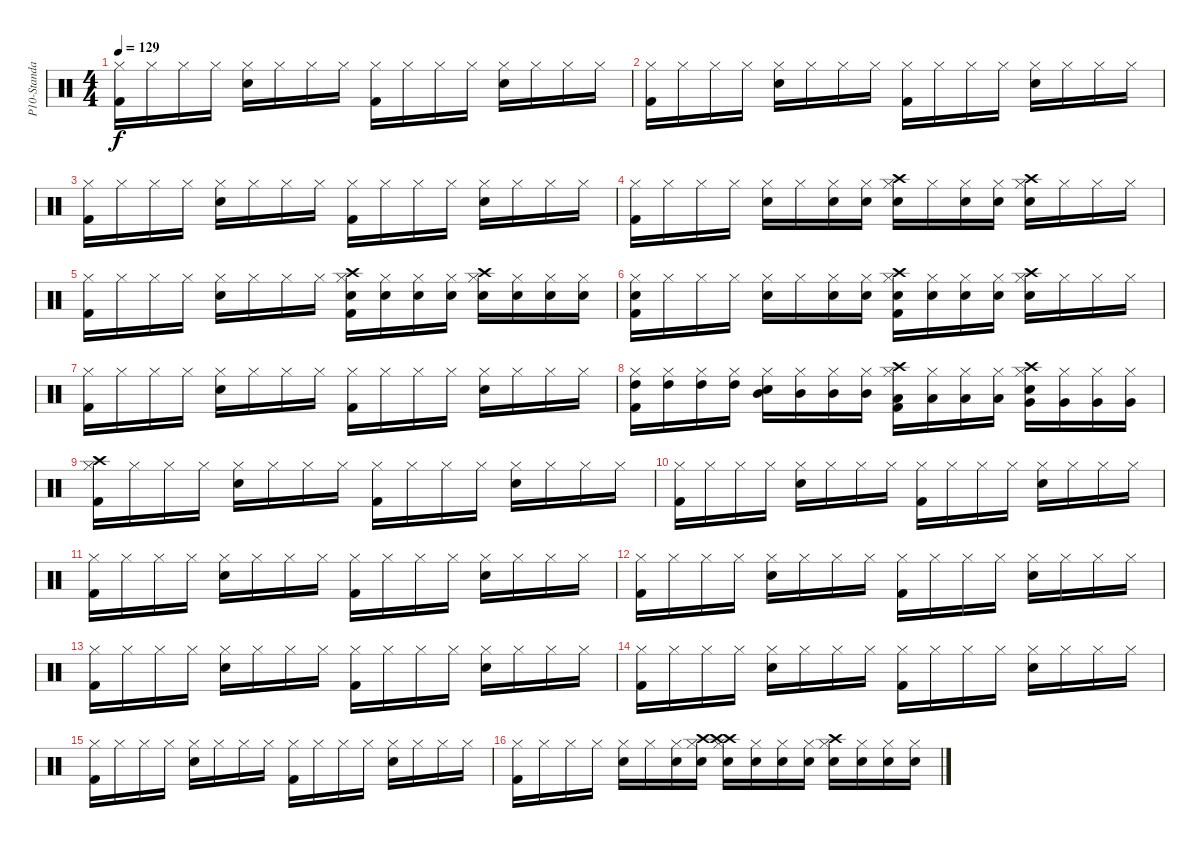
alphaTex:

\track ("P10-Standard Kit 2" "P10-Standa") {instrument percussion}
\staff {score}
\articulation defaults
\ts (4 4)
\tempo 129
\clef neutral
\ks c
("Kick (hit) 2" "Hi-Hat (closed)").16{dy f} "Hi-Hat (closed)".16 "Hi-Hat (closed)".16 "Hi-Hat (closed)".16 ("Snare (hit) 2" "Hi-Hat (closed)").16 "Hi-Hat (closed)".16 "Hi-Hat (closed)".16 "Hi-Hat (closed)".16 ("Kick (hit) 2" "Hi-Hat (closed)").16 "Hi-Hat (closed)".16 "Hi-Hat (closed)".16 "Hi-Hat (closed)".16 ("Hi-Hat (closed)" "Snare (hit) 2").16 "Hi-Hat (closed)".16 "Hi-Hat (closed)".16 "Hi-Hat (closed)".16 |
("Kick (hit) 2" "Hi-Hat (closed)").16 "Hi-Hat (closed)".16 "Hi-Hat (closed)".16 "Hi-Hat (closed)".16 ("Snare (hit) 2" "Hi-Hat (closed)").16 "Hi-Hat (closed)".16 "Hi-Hat (closed)".16 "Hi-Hat (closed)".16 ("Kick (hit) 2" "Hi-Hat (closed)").16 "Hi-Hat (closed)".16 "Hi-Hat (closed)".16 "Hi-Hat (closed)".16 ("Snare (hit) 2" "Hi-Hat (closed)").16 "Hi-Hat (closed)".16 "Hi-Hat (closed)".16 "Hi-Hat (closed)".16 |
("Hi-Hat (closed)" "Kick (hit) 2").16 "Hi-Hat (closed)".16 "Hi-Hat (closed)".16 "Hi-Hat (closed)".16 ("Snare (hit) 2" "Hi-Hat (closed)").16 "Hi-Hat (closed)".16 "Hi-Hat (closed)".16 "Hi-Hat (closed)".16 ("Kick (hit) 2" "Hi-Hat (closed)").16 "Hi-Hat (closed)".16 "Hi-Hat (closed)".16 "Hi-Hat (closed)".16 ("Snare (hit) 2" "Hi-Hat (closed)").16 "Hi-Hat (closed)".16 "Hi-Hat (closed)".16 "Hi-Hat (closed)".16 |
("Hi-Hat (closed)" "Kick (hit) 2").16 "Hi-Hat (closed)".16 "Hi-Hat (closed)".16 "Hi-Hat (closed)".16 ("Snare (hit) 2" "Hi-Hat (closed)").16 "Hi-Hat (closed)".16 ("Snare (hit) 2" "Hi-Hat (closed)").16 ("Hi-Hat (closed)" "Snare (hit) 2").16 ("Hi-Hat (closed)" "Snare (hit) 2" "Crash high (hit)").16 "Hi-Hat (closed)".16 ("Hi-Hat (closed)" "Snare (hit) 2").16 ("Hi-Hat (closed)" "Snare (hit) 2").16 ("Snare (hit) 2" "Hi-Hat (closed)" "Crash high (hit)").16 "Hi-Hat (closed)".16 "Hi-Hat (closed)".16 "Hi-Hat (closed)".16 |
("Hi-Hat (closed)" "Kick (hit) 2").16 "Hi-Hat (closed)".16 "Hi-Hat (closed)".16 "Hi-Hat (closed)".16 ("Hi-Hat (closed)" "Snare (hit) 2").16 "Hi-Hat (closed)".16 "Hi-Hat (closed)".16 "Hi-Hat (closed)".16 ("Kick (hit) 2" "Snare (hit) 2" "Crash high (hit)" "Hi-Hat (closed)").16 ("Hi-Hat (closed)" "Snare (hit) 2").16 ("Snare (hit) 2" "Hi-Hat (closed)").16 ("Hi-Hat (closed)" "Snare (hit) 2").16 ("Hi-Hat (closed)" "Snare (hit) 2" "Crash high (hit)").16 ("Hi-Hat (closed)" "Snare (hit) 2").16 ("Hi-Hat (closed)" "Snare (hit) 2").16 ("Snare (hit) 2" "Hi-Hat (closed)").16 |
("Snare (hit) 2" "Hi-Hat (closed)" "Kick (hit) 2").16 "Hi-Hat (closed)".16 "Hi-Hat (closed)".16 "Hi-Hat (closed)".16 ("Snare (hit) 2" "Hi-Hat (closed)").16 "Hi-Hat (closed)".16 ("Hi-Hat (closed)" "Snare (hit) 2").16 ("Hi-Hat (closed)" "Snare (hit) 2").16 ("Crash high (hit)" "Kick (hit) 2" "Hi-Hat (closed)" "Snare (hit) 2").16 ("Snare (hit) 2" "Hi-Hat (closed)").16 ("Hi-Hat (closed)" "Snare (hit) 2").16 ("Hi-Hat (closed)" "Snare (hit) 2").16 ("Snare (hit) 2" "Crash high (hit)" "Hi-Hat (closed)").16 "Hi-Hat (closed)".16 "Hi-Hat (closed)".16 "Hi-Hat (closed)".16 |
("Kick (hit) 2" "Hi-Hat (closed)").16 "Hi-Hat (closed)".16 "Hi-Hat (closed)".16 "Hi-Hat (closed)".16 ("Hi-Hat (closed)" "Snare (hit) 2").16 "Hi-Hat (closed)".16 "Hi-Hat (closed)".16 "Hi-Hat (closed)".16 ("Kick (hit) 2" "Hi-Hat (closed)").16 "Hi-Hat (closed)".16 "Hi-Hat (closed)".16 "Hi-Hat (closed)".16 ("Hi-Hat (closed)" "Snare (hit) 2").16 "Hi-Hat (closed)".16 "Hi-Hat (closed)".16 "Hi-Hat (closed)".16 |
("High Tom (hit)" "Hi-Hat (closed)" "Kick (hit) 2").16 ("High Tom (hit)" "Hi-Hat (closed)").16 ("High Tom (hit)" "Hi-Hat (closed)").16 ("Hi-Hat (closed)" "High Tom (hit)").16 ("Mid Tom (hit)" "Hi-Hat (closed)" "Snare (hit) 2").16 ("Mid Tom (hit)" "Hi-Hat (closed)").16 ("Mid Tom (hit)" "Hi-Hat (closed)").16 ("Hi-Hat (closed)" "Mid Tom (hit)").16 ("Hi-Hat (closed)" "Low Tom (hit)" "Kick (hit) 2" "Crash high (hit)").16 ("Hi-Hat (closed)" "Low Tom (hit)").16 ("Hi-Hat (closed)" "Low Tom (hit)").16 ("Low Tom (hit)" "Hi-Hat (closed)").16 ("Crash high (hit)" "Hi-Hat (closed)" "Snare (hit) 2" "Very Low Tom (hit)").16 ("Hi-Hat (closed)" "Very Low Tom (hit)").16 ("Very Low Tom (hit)" "Hi-Hat (closed)").16 ("Very Low Tom (hit)" "Hi-Hat (closed)").16 |
("Crash high (hit)" "Hi-Hat (closed)" "Kick (hit) 2").16 "Hi-Hat (closed)".16 "Hi-Hat (closed)".16 "Hi-Hat (closed)".16 ("Snare (hit) 2" "Hi-Hat (closed)").16 "Hi-Hat (closed)".16 "Hi-Hat (closed)".16 "Hi-Hat (closed)".16 ("Hi-Hat (closed)" "Kick (hit) 2").16 "Hi-Hat (closed)".16 "Hi-Hat (closed)".16 "Hi-Hat (closed)".16 ("Hi-Hat (closed)" "Snare (hit) 2").16 "Hi-Hat (closed)".16 "Hi-Hat (closed)".16 "Hi-Hat (closed)".16 |
("Kick (hit) 2" "Hi-Hat (closed)").16 "Hi-Hat (closed)".16 "Hi-Hat (closed)".16 "Hi-Hat (closed)".16 ("Hi-Hat (closed)" "Snare (hit) 2").16 "Hi-Hat (closed)".16 "Hi-Hat (closed)".16 "Hi-Hat (closed)".16 ("Kick (hit) 2" "Hi-Hat (closed)").16 "Hi-Hat (closed)".16 "Hi-Hat (closed)".16 "Hi-Hat (closed)".16 ("Hi-Hat (closed)" "Snare (hit) 2").16 "Hi-Hat (closed)".16 "Hi-Hat (closed)".16 "Hi-Hat (closed)".16 |
("Hi-Hat (closed)" "Kick (hit) 2").16 "Hi-Hat (closed)".16 "Hi-Hat (closed)".16 "Hi-Hat (closed)".16 ("Snare (hit) 2" "Hi-Hat (closed)").16 "Hi-Hat (closed)".16 "Hi-Hat (closed)".16 "Hi-Hat (closed)".16 ("Hi-Hat (closed)" "Kick (hit) 2").16 "Hi-Hat (closed)".16 "Hi-Hat (closed)".16 "Hi-Hat (closed)".16 ("Snare (hit) 2" "Hi-Hat (closed)").16 "Hi-Hat (closed)".16 "Hi-Hat (closed)".16 "Hi-Hat (closed)".16 |
("Hi-Hat (closed)" "Kick (hit) 2").16 "Hi-Hat (closed)".16 "Hi-Hat (closed)".16 "Hi-Hat (closed)".16 ("Hi-Hat (closed)" "Snare (hit) 2").16 "Hi-Hat (closed)".16 "Hi-Hat (closed)".16 "Hi-Hat (closed)".16 ("Kick (hit) 2" "Hi-Hat (closed)").16 "Hi-Hat (closed)".16 "Hi-Hat (closed)".16 "Hi-Hat (closed)".16 ("Hi-Hat (closed)" "Snare (hit) 2").16 "Hi-Hat (closed)".16 "Hi-Hat (closed)".16 "Hi-Hat (closed)".16 |
("Kick (hit) 2" "Hi-Hat (closed)").16 "Hi-Hat (closed)".16 "Hi-Hat (closed)".16 "Hi-Hat (closed)".16 ("Snare (hit) 2" "Hi-Hat (closed)").16 "Hi-Hat (closed)".16 "Hi-Hat (closed)".16 "Hi-Hat (closed)".16 ("Hi-Hat (closed)" "Kick (hit) 2").16 "Hi-Hat (closed)".16 "Hi-Hat (closed)".16 "Hi-Hat (closed)".16 ("Hi-Hat (closed)" "Snare (hit) 2").16 "Hi-Hat (closed)".16 "Hi-Hat (closed)".16 "Hi-Hat (closed)".16 |
("Kick (hit) 2" "Hi-Hat (closed)").16 "Hi-Hat (closed)".16 "Hi-Hat (closed)".16 "Hi-Hat (closed)".16 ("Snare (hit) 2" "Hi-Hat (closed)").16 "Hi-Hat (closed)".16 "Hi-Hat (closed)".16 "Hi-Hat (closed)".16 ("Kick (hit) 2" "Hi-Hat (closed)").16 "Hi-Hat (closed)".16 "Hi-Hat (closed)".16 "Hi-Hat (closed)".16 ("Hi-Hat (closed)" "Snare (hit) 2").16 "Hi-Hat (closed)".16 "Hi-Hat (closed)".16 "Hi-Hat (closed)".16 |
("Hi-Hat (closed)" "Kick (hit) 2").16 "Hi-Hat (closed)".16 "Hi-Hat (closed)".16 "Hi-Hat (closed)".16 ("Snare (hit) 2" "Hi-Hat (closed)").16 "Hi-Hat (closed)".16 "Hi-Hat (closed)".16 "Hi-Hat (closed)".16 ("Kick (hit) 2" "Hi-Hat (closed)").16 "Hi-Hat (closed)".16 "Hi-Hat (closed)".16 "Hi-Hat (closed)".16 ("Snare (hit) 2" "Hi-Hat (closed)").16 "Hi-Hat (closed)".16 "Hi-Hat (closed)".16 "Hi-Hat (closed)".16 |
("Kick (hit) 2" "Hi-Hat (closed)").16 "Hi-Hat (closed)".16 "Hi-Hat (closed)".16 "Hi-Hat (closed)".16 ("Snare (hit) 2" "Hi-Hat (closed)").16 "Hi-Hat (closed)".16 ("Snare (hit) 2" "Hi-Hat (closed)").16 ("Crash high (hit)" "Snare (hit) 2" "Hi-Hat (closed)").16 ("Crash high (hit)" "Hi-Hat (closed)" "Crash high (hit)" "Snare (hit) 2").16 ("Hi-Hat (closed)" "Snare (hit) 2").16 ("Hi-Hat (closed)" "Snare (hit) 2").16 ("Hi-Hat (closed)" "Snare (hit) 2").16 ("Crash high (hit)" "Snare (hit) 2" "Hi-Hat (closed)").16 ("Hi-Hat (closed)" "Snare (hit) 2").16 ("Snare (hit) 2" "Hi-Hat (closed)").16 ("Snare (hit) 2" "Hi-Hat (closed)").16
